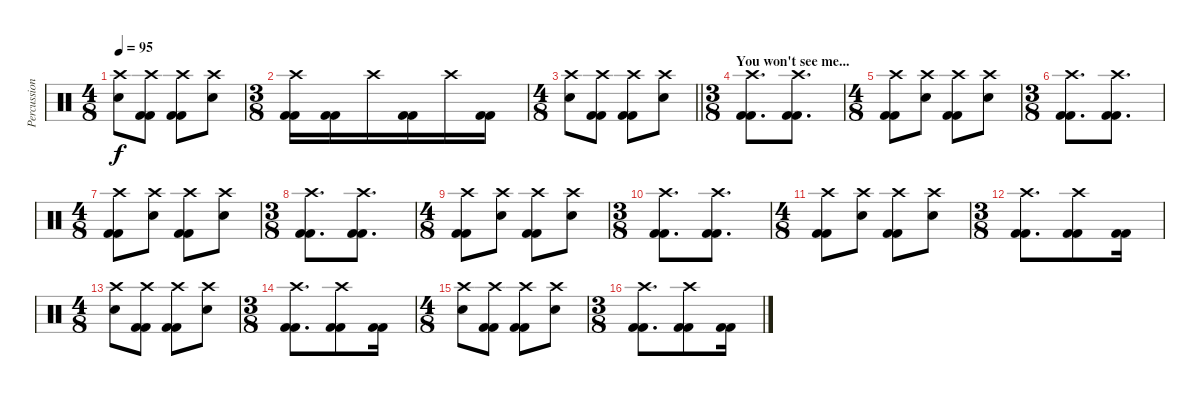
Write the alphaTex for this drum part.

\track ("Percussion" "Percussion") {instrument percussion}
\staff {score}
\articulation defaults
\ts (4 8)
\tempo 95
\clef neutral
\ks c
("Crash high (hit)" "Electric Snare (hit)").8{dy f} ("Crash high (hit)" "Kick (hit) 2" "Kick (hit) 2").8 ("Crash high (hit)" "Kick (hit) 2" "Kick (hit) 2").8 ("Crash high (hit)" "Electric Snare (hit)").8 |
\ts (3 8)
("Crash high (hit)" "Kick (hit) 2" "Kick (hit) 2").16 ("Kick (hit) 2" "Kick (hit) 2").16 "Crash high (hit)".16 ("Kick (hit) 2" "Kick (hit) 2").16 "Crash high (hit)".16 ("Kick (hit) 2" "Kick (hit) 2").16 |
\ts (4 8)
\barLineRight lightlight
("Crash high (hit)" "Electric Snare (hit)").8 ("Crash high (hit)" "Kick (hit) 2" "Kick (hit) 2").8 ("Crash high (hit)" "Kick (hit) 2" "Kick (hit) 2").8 ("Crash high (hit)" "Electric Snare (hit)").8 |
\ts (3 8)
\section ("" "You won't see me...")
("Crash high (hit)" "Kick (hit) 2" "Kick (hit) 2").8{d} ("Crash high (hit)" "Kick (hit) 2" "Kick (hit) 2").8{d} |
\ts (4 8)
("Crash high (hit)" "Kick (hit) 2" "Kick (hit) 2").8 ("Crash high (hit)" "Electric Snare (hit)").8 ("Crash high (hit)" "Kick (hit) 2" "Kick (hit) 2").8 ("Crash high (hit)" "Electric Snare (hit)").8 |
\ts (3 8)
("Crash high (hit)" "Kick (hit) 2" "Kick (hit) 2").8{d} ("Crash high (hit)" "Kick (hit) 2" "Kick (hit) 2").8{d} |
\ts (4 8)
("Crash high (hit)" "Kick (hit) 2" "Kick (hit) 2").8 ("Crash high (hit)" "Electric Snare (hit)").8 ("Crash high (hit)" "Kick (hit) 2" "Kick (hit) 2").8 ("Crash high (hit)" "Electric Snare (hit)").8 |
\ts (3 8)
("Crash high (hit)" "Kick (hit) 2" "Kick (hit) 2").8{d} ("Crash high (hit)" "Kick (hit) 2" "Kick (hit) 2").8{d} |
\ts (4 8)
("Crash high (hit)" "Kick (hit) 2" "Kick (hit) 2").8 ("Crash high (hit)" "Electric Snare (hit)").8 ("Crash high (hit)" "Kick (hit) 2" "Kick (hit) 2").8 ("Crash high (hit)" "Electric Snare (hit)").8 |
\ts (3 8)
("Crash high (hit)" "Kick (hit) 2" "Kick (hit) 2").8{d} ("Crash high (hit)" "Kick (hit) 2" "Kick (hit) 2").8{d} |
\ts (4 8)
("Crash high (hit)" "Kick (hit) 2" "Kick (hit) 2").8 ("Crash high (hit)" "Electric Snare (hit)").8 ("Crash high (hit)" "Kick (hit) 2" "Kick (hit) 2").8 ("Crash high (hit)" "Electric Snare (hit)").8 |
\ts (3 8)
("Crash high (hit)" "Kick (hit) 2" "Kick (hit) 2").8{d} ("Crash high (hit)" "Kick (hit) 2" "Kick (hit) 2").8 ("Kick (hit) 2" "Kick (hit) 2").16 |
\ts (4 8)
("Crash high (hit)" "Electric Snare (hit)").8 ("Crash high (hit)" "Kick (hit) 2" "Kick (hit) 2").8 ("Crash high (hit)" "Kick (hit) 2" "Kick (hit) 2").8 ("Crash high (hit)" "Electric Snare (hit)").8 |
\ts (3 8)
("Crash high (hit)" "Kick (hit) 2" "Kick (hit) 2").8{d} ("Crash high (hit)" "Kick (hit) 2" "Kick (hit) 2").8 ("Kick (hit) 2" "Kick (hit) 2").16 |
\ts (4 8)
("Crash high (hit)" "Electric Snare (hit)").8 ("Crash high (hit)" "Kick (hit) 2" "Kick (hit) 2").8 ("Crash high (hit)" "Kick (hit) 2" "Kick (hit) 2").8 ("Crash high (hit)" "Electric Snare (hit)").8 |
\ts (3 8)
("Crash high (hit)" "Kick (hit) 2" "Kick (hit) 2").8{d} ("Crash high (hit)" "Kick (hit) 2" "Kick (hit) 2").8 ("Kick (hit) 2" "Kick (hit) 2").16
